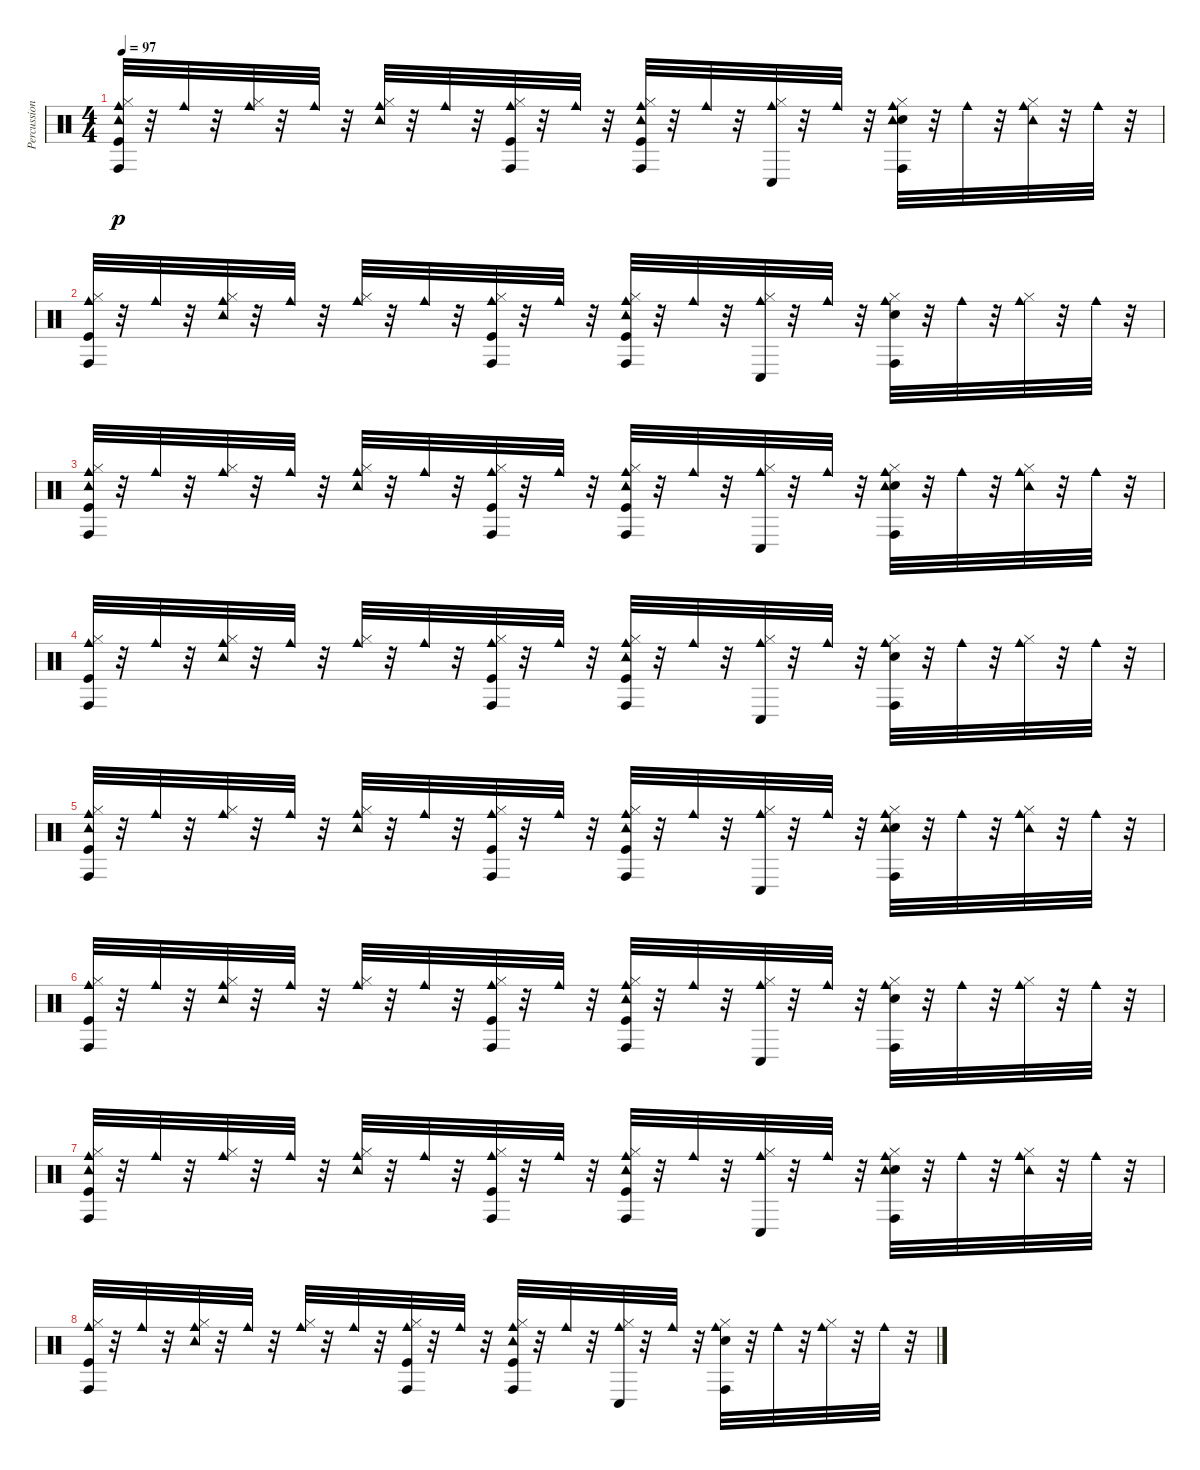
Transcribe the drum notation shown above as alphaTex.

\track ("Percussion" "Percussion") {instrument percussion}
\staff {score}
\articulation defaults
\ts (4 4)
\tempo 97
\clef neutral
\ks c
("Kick (hit)" "Hi-Hat (closed)" "Tambourine (hit)" "Cowbell medium (hit)" "Conga high (hit)").32{dy p} r.32 "Cowbell medium (hit)".32 r.32 ("Hi-Hat (closed)" "Cowbell medium (hit)").32 r.32 "Cowbell medium (hit)".32 r.32 ("Hi-Hat (closed)" "Tambourine (hit)" "Cowbell medium (hit)").32 r.32 "Cowbell medium (hit)".32 r.32 ("Kick (hit)" "Hi-Hat (closed)" "Cowbell medium (hit)" "Conga high (hit)").32 r.32 "Cowbell medium (hit)".32 r.32 ("Kick (hit)" "Hi-Hat (closed)" "Tambourine (hit)" "Cowbell medium (hit)" "Conga high (hit)").32 r.32 "Cowbell medium (hit)".32 r.32 ("Conga low (hit)" "Hi-Hat (closed)" "Cowbell medium (hit)").32 r.32 "Cowbell medium (hit)".32 r.32 ("Conga high (hit)" "Snare (hit) 2" "Hi-Hat (closed)" "Tambourine (hit)" "Cowbell medium (hit)").32 r.32 "Cowbell medium (hit)".32 r.32 ("Hi-Hat (closed)" "Tambourine (hit)" "Cowbell medium (hit)").32 r.32 "Cowbell medium (hit)".32 r.32 |
("Kick (hit)" "Hi-Hat (closed)" "Cowbell medium (hit)" "Conga high (hit)").32 r.32 "Cowbell medium (hit)".32 r.32 ("Hi-Hat (closed)" "Tambourine (hit)" "Cowbell medium (hit)").32 r.32 "Cowbell medium (hit)".32 r.32 ("Hi-Hat (closed)" "Cowbell medium (hit)").32 r.32 "Cowbell medium (hit)".32 r.32 ("Kick (hit)" "Hi-Hat (closed)" "Cowbell medium (hit)" "Conga high (hit)").32 r.32 "Cowbell medium (hit)".32 r.32 ("Kick (hit)" "Hi-Hat (closed)" "Tambourine (hit)" "Cowbell medium (hit)" "Conga high (hit)").32 r.32 "Cowbell medium (hit)".32 r.32 ("Conga low (hit)" "Hi-Hat (closed)" "Cowbell medium (hit)").32 r.32 "Cowbell medium (hit)".32 r.32 ("Conga high (hit)" "Snare (hit) 2" "Hi-Hat (closed)" "Cowbell medium (hit)").32 r.32 "Cowbell medium (hit)".32 r.32 ("Hi-Hat (closed)" "Cowbell medium (hit)").32 r.32 "Cowbell medium (hit)".32 r.32 |
("Kick (hit)" "Hi-Hat (closed)" "Tambourine (hit)" "Cowbell medium (hit)" "Conga high (hit)").32 r.32 "Cowbell medium (hit)".32 r.32 ("Hi-Hat (closed)" "Cowbell medium (hit)").32 r.32 "Cowbell medium (hit)".32 r.32 ("Hi-Hat (closed)" "Tambourine (hit)" "Cowbell medium (hit)").32 r.32 "Cowbell medium (hit)".32 r.32 ("Kick (hit)" "Hi-Hat (closed)" "Cowbell medium (hit)" "Conga high (hit)").32 r.32 "Cowbell medium (hit)".32 r.32 ("Kick (hit)" "Hi-Hat (closed)" "Tambourine (hit)" "Cowbell medium (hit)" "Conga high (hit)").32 r.32 "Cowbell medium (hit)".32 r.32 ("Conga low (hit)" "Hi-Hat (closed)" "Cowbell medium (hit)").32 r.32 "Cowbell medium (hit)".32 r.32 ("Conga high (hit)" "Snare (hit) 2" "Hi-Hat (closed)" "Tambourine (hit)" "Cowbell medium (hit)").32 r.32 "Cowbell medium (hit)".32 r.32 ("Hi-Hat (closed)" "Tambourine (hit)" "Cowbell medium (hit)").32 r.32 "Cowbell medium (hit)".32 r.32 |
("Kick (hit)" "Hi-Hat (closed)" "Cowbell medium (hit)" "Conga high (hit)").32 r.32 "Cowbell medium (hit)".32 r.32 ("Hi-Hat (closed)" "Tambourine (hit)" "Cowbell medium (hit)").32 r.32 "Cowbell medium (hit)".32 r.32 ("Hi-Hat (closed)" "Cowbell medium (hit)").32 r.32 "Cowbell medium (hit)".32 r.32 ("Kick (hit)" "Hi-Hat (closed)" "Cowbell medium (hit)" "Conga high (hit)").32 r.32 "Cowbell medium (hit)".32 r.32 ("Kick (hit)" "Hi-Hat (closed)" "Tambourine (hit)" "Cowbell medium (hit)" "Conga high (hit)").32 r.32 "Cowbell medium (hit)".32 r.32 ("Conga low (hit)" "Hi-Hat (closed)" "Cowbell medium (hit)").32 r.32 "Cowbell medium (hit)".32 r.32 ("Conga high (hit)" "Snare (hit) 2" "Hi-Hat (closed)" "Cowbell medium (hit)").32 r.32 "Cowbell medium (hit)".32 r.32 ("Hi-Hat (closed)" "Cowbell medium (hit)").32 r.32 "Cowbell medium (hit)".32 r.32 |
("Kick (hit)" "Hi-Hat (closed)" "Tambourine (hit)" "Cowbell medium (hit)" "Conga high (hit)").32 r.32 "Cowbell medium (hit)".32 r.32 ("Hi-Hat (closed)" "Cowbell medium (hit)").32 r.32 "Cowbell medium (hit)".32 r.32 ("Hi-Hat (closed)" "Tambourine (hit)" "Cowbell medium (hit)").32 r.32 "Cowbell medium (hit)".32 r.32 ("Kick (hit)" "Hi-Hat (closed)" "Cowbell medium (hit)" "Conga high (hit)").32 r.32 "Cowbell medium (hit)".32 r.32 ("Kick (hit)" "Hi-Hat (closed)" "Tambourine (hit)" "Cowbell medium (hit)" "Conga high (hit)").32 r.32 "Cowbell medium (hit)".32 r.32 ("Conga low (hit)" "Hi-Hat (closed)" "Cowbell medium (hit)").32 r.32 "Cowbell medium (hit)".32 r.32 ("Conga high (hit)" "Snare (hit) 2" "Hi-Hat (closed)" "Tambourine (hit)" "Cowbell medium (hit)").32 r.32 "Cowbell medium (hit)".32 r.32 ("Hi-Hat (closed)" "Tambourine (hit)" "Cowbell medium (hit)").32 r.32 "Cowbell medium (hit)".32 r.32 |
("Kick (hit)" "Hi-Hat (closed)" "Cowbell medium (hit)" "Conga high (hit)").32 r.32 "Cowbell medium (hit)".32 r.32 ("Hi-Hat (closed)" "Tambourine (hit)" "Cowbell medium (hit)").32 r.32 "Cowbell medium (hit)".32 r.32 ("Hi-Hat (closed)" "Cowbell medium (hit)").32 r.32 "Cowbell medium (hit)".32 r.32 ("Kick (hit)" "Hi-Hat (closed)" "Cowbell medium (hit)" "Conga high (hit)").32 r.32 "Cowbell medium (hit)".32 r.32 ("Kick (hit)" "Hi-Hat (closed)" "Tambourine (hit)" "Cowbell medium (hit)" "Conga high (hit)").32 r.32 "Cowbell medium (hit)".32 r.32 ("Conga low (hit)" "Hi-Hat (closed)" "Cowbell medium (hit)").32 r.32 "Cowbell medium (hit)".32 r.32 ("Conga high (hit)" "Snare (hit) 2" "Hi-Hat (closed)" "Cowbell medium (hit)").32 r.32 "Cowbell medium (hit)".32 r.32 ("Hi-Hat (closed)" "Cowbell medium (hit)").32 r.32 "Cowbell medium (hit)".32 r.32 |
("Kick (hit)" "Hi-Hat (closed)" "Tambourine (hit)" "Cowbell medium (hit)" "Conga high (hit)").32 r.32 "Cowbell medium (hit)".32 r.32 ("Hi-Hat (closed)" "Cowbell medium (hit)").32 r.32 "Cowbell medium (hit)".32 r.32 ("Hi-Hat (closed)" "Tambourine (hit)" "Cowbell medium (hit)").32 r.32 "Cowbell medium (hit)".32 r.32 ("Kick (hit)" "Hi-Hat (closed)" "Cowbell medium (hit)" "Conga high (hit)").32 r.32 "Cowbell medium (hit)".32 r.32 ("Kick (hit)" "Hi-Hat (closed)" "Tambourine (hit)" "Cowbell medium (hit)" "Conga high (hit)").32 r.32 "Cowbell medium (hit)".32 r.32 ("Conga low (hit)" "Hi-Hat (closed)" "Cowbell medium (hit)").32 r.32 "Cowbell medium (hit)".32 r.32 ("Conga high (hit)" "Snare (hit) 2" "Hi-Hat (closed)" "Tambourine (hit)" "Cowbell medium (hit)").32 r.32 "Cowbell medium (hit)".32 r.32 ("Hi-Hat (closed)" "Tambourine (hit)" "Cowbell medium (hit)").32 r.32 "Cowbell medium (hit)".32 r.32 |
("Kick (hit)" "Hi-Hat (closed)" "Cowbell medium (hit)" "Conga high (hit)").32 r.32 "Cowbell medium (hit)".32 r.32 ("Hi-Hat (closed)" "Tambourine (hit)" "Cowbell medium (hit)").32 r.32 "Cowbell medium (hit)".32 r.32 ("Hi-Hat (closed)" "Cowbell medium (hit)").32 r.32 "Cowbell medium (hit)".32 r.32 ("Kick (hit)" "Hi-Hat (closed)" "Cowbell medium (hit)" "Conga high (hit)").32 r.32 "Cowbell medium (hit)".32 r.32 ("Kick (hit)" "Hi-Hat (closed)" "Tambourine (hit)" "Cowbell medium (hit)" "Conga high (hit)").32 r.32 "Cowbell medium (hit)".32 r.32 ("Conga low (hit)" "Hi-Hat (closed)" "Cowbell medium (hit)").32 r.32 "Cowbell medium (hit)".32 r.32 ("Conga high (hit)" "Snare (hit) 2" "Hi-Hat (closed)" "Cowbell medium (hit)").32 r.32 "Cowbell medium (hit)".32 r.32 ("Hi-Hat (closed)" "Cowbell medium (hit)").32 r.32 "Cowbell medium (hit)".32 r.32
